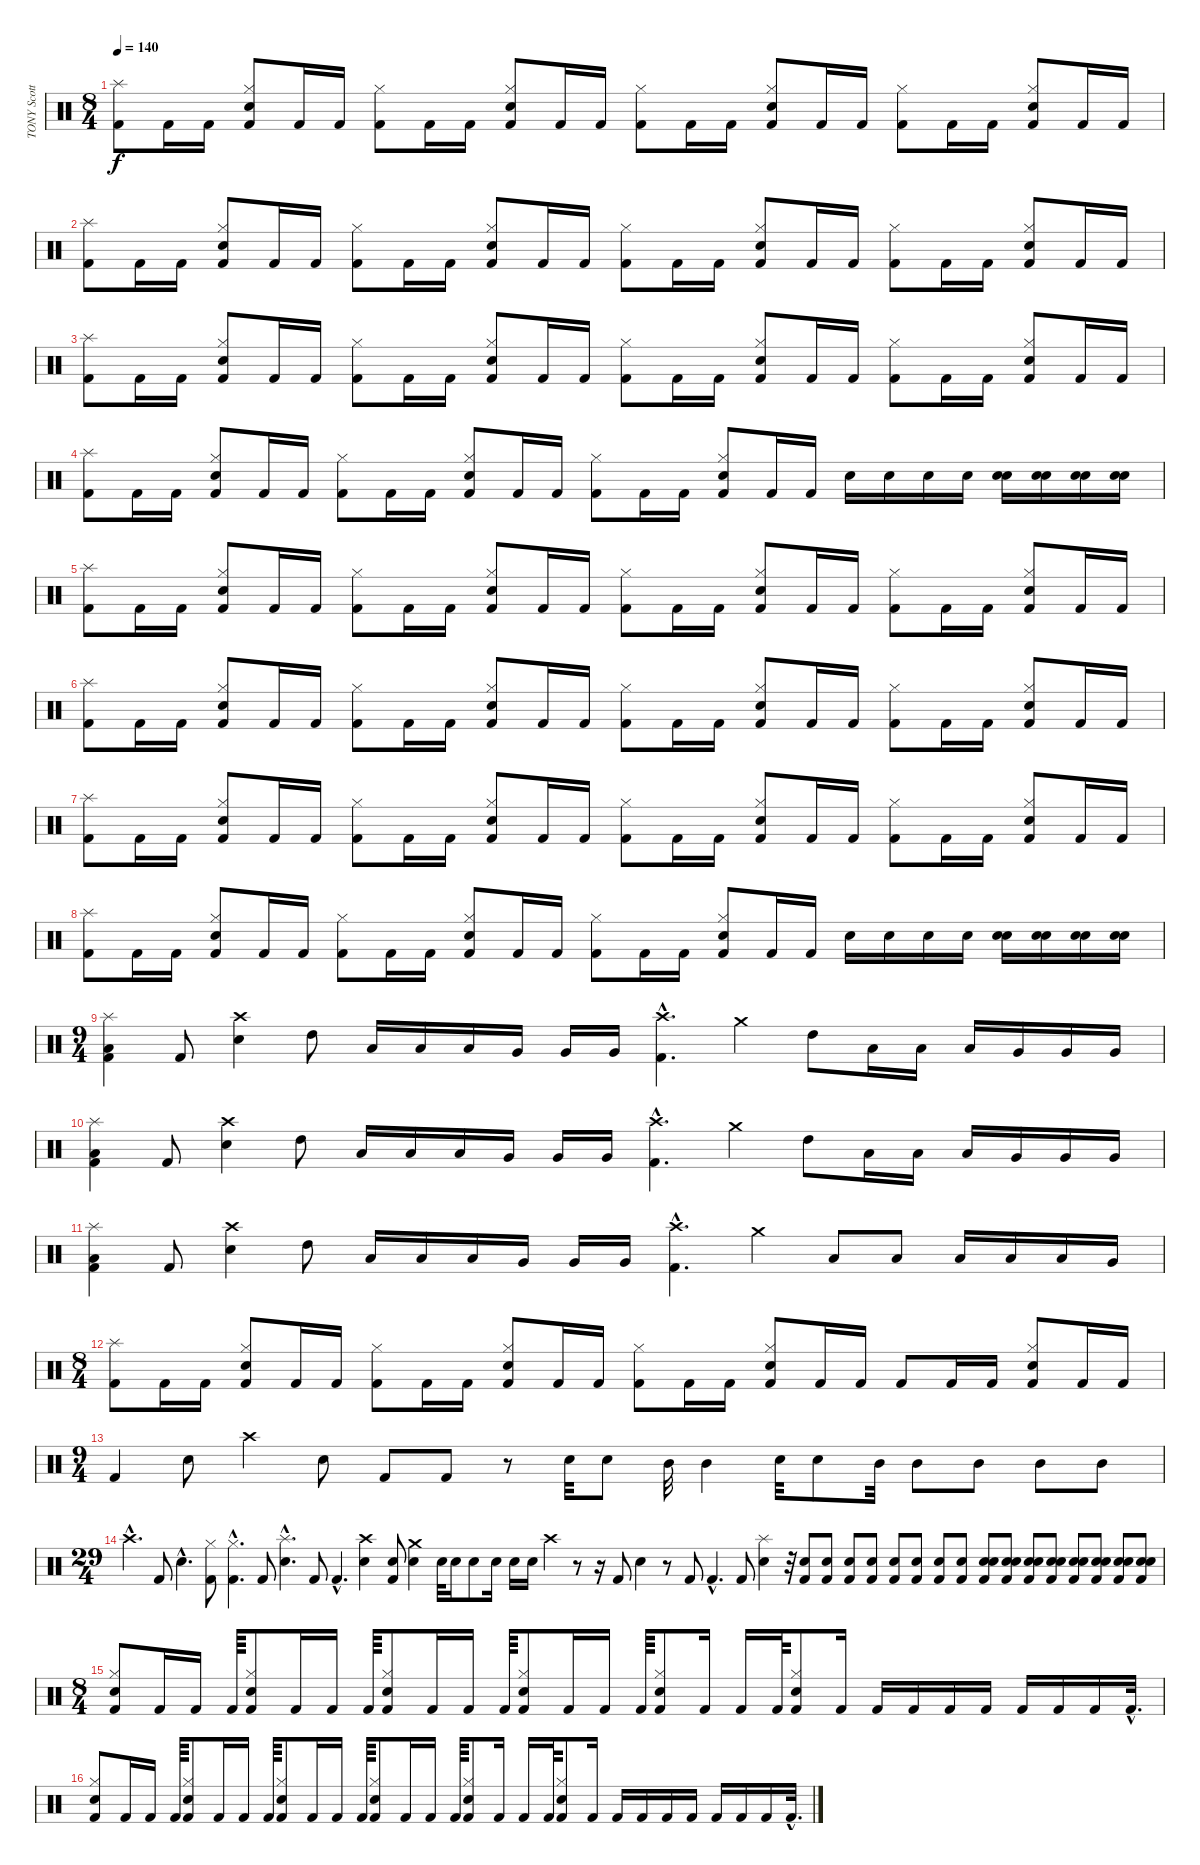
\track ("TONY Scotto" "TONY Scott") {instrument percussion}
\staff {score}
\articulation defaults
\ts (8 4)
\tempo 140
\clef neutral
\ks c
("Splash (hit)" "Kick (hit) 2").8{dy f} "Kick (hit) 2".16 "Kick (hit) 2".16 ("Hi-Hat (closed)" "Electric Snare (hit)" "Kick (hit) 2").8 "Kick (hit) 2".16 "Kick (hit) 2".16 ("Hi-Hat (closed)" "Kick (hit) 2").8 "Kick (hit) 2".16 "Kick (hit) 2".16 ("Hi-Hat (closed)" "Electric Snare (hit)" "Kick (hit) 2").8 "Kick (hit) 2".16 "Kick (hit) 2".16 ("Hi-Hat (closed)" "Kick (hit) 2").8 "Kick (hit) 2".16 "Kick (hit) 2".16 ("Hi-Hat (closed)" "Electric Snare (hit)" "Kick (hit) 2").8 "Kick (hit) 2".16 "Kick (hit) 2".16 ("Hi-Hat (closed)" "Kick (hit) 2").8 "Kick (hit) 2".16 "Kick (hit) 2".16 ("Hi-Hat (closed)" "Electric Snare (hit)" "Kick (hit) 2").8 "Kick (hit) 2".16 "Kick (hit) 2".16 |
("Splash (hit)" "Kick (hit) 2").8 "Kick (hit) 2".16 "Kick (hit) 2".16 ("Hi-Hat (closed)" "Electric Snare (hit)" "Kick (hit) 2").8 "Kick (hit) 2".16 "Kick (hit) 2".16 ("Hi-Hat (closed)" "Kick (hit) 2").8 "Kick (hit) 2".16 "Kick (hit) 2".16 ("Hi-Hat (closed)" "Electric Snare (hit)" "Kick (hit) 2").8 "Kick (hit) 2".16 "Kick (hit) 2".16 ("Hi-Hat (closed)" "Kick (hit) 2").8 "Kick (hit) 2".16 "Kick (hit) 2".16 ("Hi-Hat (closed)" "Electric Snare (hit)" "Kick (hit) 2").8 "Kick (hit) 2".16 "Kick (hit) 2".16 ("Hi-Hat (closed)" "Kick (hit) 2").8 "Kick (hit) 2".16 "Kick (hit) 2".16 ("Hi-Hat (closed)" "Electric Snare (hit)" "Kick (hit) 2").8 "Kick (hit) 2".16 "Kick (hit) 2".16 |
("Splash (hit)" "Kick (hit) 2").8 "Kick (hit) 2".16 "Kick (hit) 2".16 ("Hi-Hat (closed)" "Electric Snare (hit)" "Kick (hit) 2").8 "Kick (hit) 2".16 "Kick (hit) 2".16 ("Hi-Hat (closed)" "Kick (hit) 2").8 "Kick (hit) 2".16 "Kick (hit) 2".16 ("Hi-Hat (closed)" "Electric Snare (hit)" "Kick (hit) 2").8 "Kick (hit) 2".16 "Kick (hit) 2".16 ("Hi-Hat (closed)" "Kick (hit) 2").8 "Kick (hit) 2".16 "Kick (hit) 2".16 ("Hi-Hat (closed)" "Electric Snare (hit)" "Kick (hit) 2").8 "Kick (hit) 2".16 "Kick (hit) 2".16 ("Hi-Hat (closed)" "Kick (hit) 2").8 "Kick (hit) 2".16 "Kick (hit) 2".16 ("Hi-Hat (closed)" "Electric Snare (hit)" "Kick (hit) 2").8 "Kick (hit) 2".16 "Kick (hit) 2".16 |
("Splash (hit)" "Kick (hit) 2").8 "Kick (hit) 2".16 "Kick (hit) 2".16 ("Hi-Hat (closed)" "Electric Snare (hit)" "Kick (hit) 2").8 "Kick (hit) 2".16 "Kick (hit) 2".16 ("Hi-Hat (closed)" "Kick (hit) 2").8 "Kick (hit) 2".16 "Kick (hit) 2".16 ("Hi-Hat (closed)" "Electric Snare (hit)" "Kick (hit) 2").8 "Kick (hit) 2".16 "Kick (hit) 2".16 ("Hi-Hat (closed)" "Kick (hit) 2").8 "Kick (hit) 2".16 "Kick (hit) 2".16 ("Hi-Hat (closed)" "Electric Snare (hit)" "Kick (hit) 2").8 "Kick (hit) 2".16 "Kick (hit) 2".16 "Electric Snare (hit)".16 "Electric Snare (hit)".16 "Electric Snare (hit)".16 "Electric Snare (hit)".16 ("Electric Snare (hit)" "Electric Snare (hit)").16 ("Electric Snare (hit)" "Electric Snare (hit)").16 ("Electric Snare (hit)" "Electric Snare (hit)").16 ("Electric Snare (hit)" "Electric Snare (hit)").16 |
("Splash (hit)" "Kick (hit) 2").8 "Kick (hit) 2".16 "Kick (hit) 2".16 ("Hi-Hat (closed)" "Electric Snare (hit)" "Kick (hit) 2").8 "Kick (hit) 2".16 "Kick (hit) 2".16 ("Hi-Hat (closed)" "Kick (hit) 2").8 "Kick (hit) 2".16 "Kick (hit) 2".16 ("Hi-Hat (closed)" "Electric Snare (hit)" "Kick (hit) 2").8 "Kick (hit) 2".16 "Kick (hit) 2".16 ("Hi-Hat (closed)" "Kick (hit) 2").8 "Kick (hit) 2".16 "Kick (hit) 2".16 ("Hi-Hat (closed)" "Electric Snare (hit)" "Kick (hit) 2").8 "Kick (hit) 2".16 "Kick (hit) 2".16 ("Hi-Hat (closed)" "Kick (hit) 2").8 "Kick (hit) 2".16 "Kick (hit) 2".16 ("Hi-Hat (closed)" "Electric Snare (hit)" "Kick (hit) 2").8 "Kick (hit) 2".16 "Kick (hit) 2".16 |
("Splash (hit)" "Kick (hit) 2").8 "Kick (hit) 2".16 "Kick (hit) 2".16 ("Hi-Hat (closed)" "Electric Snare (hit)" "Kick (hit) 2").8 "Kick (hit) 2".16 "Kick (hit) 2".16 ("Hi-Hat (closed)" "Kick (hit) 2").8 "Kick (hit) 2".16 "Kick (hit) 2".16 ("Hi-Hat (closed)" "Electric Snare (hit)" "Kick (hit) 2").8 "Kick (hit) 2".16 "Kick (hit) 2".16 ("Hi-Hat (closed)" "Kick (hit) 2").8 "Kick (hit) 2".16 "Kick (hit) 2".16 ("Hi-Hat (closed)" "Electric Snare (hit)" "Kick (hit) 2").8 "Kick (hit) 2".16 "Kick (hit) 2".16 ("Hi-Hat (closed)" "Kick (hit) 2").8 "Kick (hit) 2".16 "Kick (hit) 2".16 ("Hi-Hat (closed)" "Electric Snare (hit)" "Kick (hit) 2").8 "Kick (hit) 2".16 "Kick (hit) 2".16 |
("Splash (hit)" "Kick (hit) 2").8 "Kick (hit) 2".16 "Kick (hit) 2".16 ("Hi-Hat (closed)" "Electric Snare (hit)" "Kick (hit) 2").8 "Kick (hit) 2".16 "Kick (hit) 2".16 ("Hi-Hat (closed)" "Kick (hit) 2").8 "Kick (hit) 2".16 "Kick (hit) 2".16 ("Hi-Hat (closed)" "Electric Snare (hit)" "Kick (hit) 2").8 "Kick (hit) 2".16 "Kick (hit) 2".16 ("Hi-Hat (closed)" "Kick (hit) 2").8 "Kick (hit) 2".16 "Kick (hit) 2".16 ("Hi-Hat (closed)" "Electric Snare (hit)" "Kick (hit) 2").8 "Kick (hit) 2".16 "Kick (hit) 2".16 ("Hi-Hat (closed)" "Kick (hit) 2").8 "Kick (hit) 2".16 "Kick (hit) 2".16 ("Hi-Hat (closed)" "Electric Snare (hit)" "Kick (hit) 2").8 "Kick (hit) 2".16 "Kick (hit) 2".16 |
("Splash (hit)" "Kick (hit) 2").8 "Kick (hit) 2".16 "Kick (hit) 2".16 ("Hi-Hat (closed)" "Electric Snare (hit)" "Kick (hit) 2").8 "Kick (hit) 2".16 "Kick (hit) 2".16 ("Hi-Hat (closed)" "Kick (hit) 2").8 "Kick (hit) 2".16 "Kick (hit) 2".16 ("Hi-Hat (closed)" "Electric Snare (hit)" "Kick (hit) 2").8 "Kick (hit) 2".16 "Kick (hit) 2".16 ("Hi-Hat (closed)" "Kick (hit) 2").8 "Kick (hit) 2".16 "Kick (hit) 2".16 ("Hi-Hat (closed)" "Electric Snare (hit)" "Kick (hit) 2").8 "Kick (hit) 2".16 "Kick (hit) 2".16 "Electric Snare (hit)".16 "Electric Snare (hit)".16 "Electric Snare (hit)".16 "Electric Snare (hit)".16 ("Electric Snare (hit)" "Electric Snare (hit)").16 ("Electric Snare (hit)" "Electric Snare (hit)").16 ("Electric Snare (hit)" "Electric Snare (hit)").16 ("Electric Snare (hit)" "Electric Snare (hit)").16 |
\ts (9 4)
("Splash (hit)" "Low Tom (hit)" "Kick (hit) 2").4 "Kick (hit) 2".8 ("Crash high (hit)" "Electric Snare (hit)").4 "High Tom (hit)".8 "Low Floor Tom (hit)".16 "Low Floor Tom (hit)".16 "Low Floor Tom (hit)".16 "Very Low Tom (hit)".16 "Very Low Tom (hit)".16 "Very Low Tom (hit)".16 ("Crash high (hit)"{hac} "Kick (hit) 2"{hac}).4{d} "Crash medium (hit)".4 "High Tom (hit)".8 "Low Floor Tom (hit)".16 "Low Floor Tom (hit)".16 "Low Floor Tom (hit)".16 "Very Low Tom (hit)".16 "Very Low Tom (hit)".16 "Very Low Tom (hit)".16 |
("Splash (hit)" "Low Tom (hit)" "Kick (hit) 2").4 "Kick (hit) 2".8 ("Crash high (hit)" "Electric Snare (hit)").4 "High Tom (hit)".8 "Low Floor Tom (hit)".16 "Low Floor Tom (hit)".16 "Low Floor Tom (hit)".16 "Very Low Tom (hit)".16 "Very Low Tom (hit)".16 "Very Low Tom (hit)".16 ("Crash high (hit)"{hac} "Kick (hit) 2"{hac}).4{d} "Crash medium (hit)".4 "High Tom (hit)".8 "Low Floor Tom (hit)".16 "Low Floor Tom (hit)".16 "Low Floor Tom (hit)".16 "Very Low Tom (hit)".16 "Very Low Tom (hit)".16 "Very Low Tom (hit)".16 |
("Splash (hit)" "Low Tom (hit)" "Kick (hit) 2").4 "Kick (hit) 2".8 ("Crash high (hit)" "Electric Snare (hit)").4 "High Tom (hit)".8 "Low Floor Tom (hit)".16 "Low Floor Tom (hit)".16 "Low Floor Tom (hit)".16 "Very Low Tom (hit)".16 "Very Low Tom (hit)".16 "Very Low Tom (hit)".16 ("Crash high (hit)"{hac} "Kick (hit) 2"{hac}).4{d} "Crash medium (hit)".4 "Low Tom (hit)".8 "Low Tom (hit)".8 "Low Floor Tom (hit)".16 "Low Floor Tom (hit)".16 "Low Floor Tom (hit)".16 "Very Low Tom (hit)".16 |
\ts (8 4)
("Splash (hit)" "Kick (hit) 2").8 "Kick (hit) 2".16 "Kick (hit) 2".16 ("Hi-Hat (closed)" "Electric Snare (hit)" "Kick (hit) 2").8 "Kick (hit) 2".16 "Kick (hit) 2".16 ("Hi-Hat (closed)" "Kick (hit) 2").8 "Kick (hit) 2".16 "Kick (hit) 2".16 ("Hi-Hat (closed)" "Electric Snare (hit)" "Kick (hit) 2").8 "Kick (hit) 2".16 "Kick (hit) 2".16 ("Hi-Hat (closed)" "Kick (hit) 2").8 "Kick (hit) 2".16 "Kick (hit) 2".16 ("Hi-Hat (closed)" "Electric Snare (hit)" "Kick (hit) 2").8 "Kick (hit) 2".16 "Kick (hit) 2".16 "Kick (hit) 2".8 "Kick (hit) 2".16 "Kick (hit) 2".16 ("Hi-Hat (closed)" "Electric Snare (hit)" "Kick (hit) 2").8 "Kick (hit) 2".16 "Kick (hit) 2".16 |
\ts (9 4)
"Kick (hit) 2".4 "Electric Snare (hit)".8 "Crash high (hit)".4 "Electric Snare (hit)".8 "Kick (hit) 2".8 "Kick (hit) 2".8 r.8 "Electric Snare (hit)".32 "Electric Snare (hit)".8 "Mid Tom (hit)".32 "Mid Tom (hit)".4 "Electric Snare (hit)".32 "Electric Snare (hit)".8 "Mid Tom (hit)".32 "Mid Tom (hit)".8 "Mid Tom (hit)".8 "Mid Tom (hit)".8 "Mid Tom (hit)".8 |
\ts (29 4)
"Crash high (hit)"{hac}.4{d} "Kick (hit) 2".8 "Electric Snare (hit)"{hac}.4{d} ("Hi-Hat (closed)" "Kick (hit) 2").8 ("Hi-Hat (closed)"{hac} "Kick (hit) 2"{hac}).4{d} "Kick (hit) 2".8 ("Splash (hit)"{hac} "Electric Snare (hit)"{hac}).4{d} "Kick (hit) 2".8 "Kick (hit) 2"{hac}.4{d} ("Crash high (hit)" "Electric Snare (hit)").4 ("Electric Snare (hit)" "Kick (hit) 2").8 ("Crash medium (hit)" "Electric Snare (hit)").4 "Electric Snare (hit)".32 "Electric Snare (hit)".16 "Electric Snare (hit)".8 "Electric Snare (hit)".16 "Electric Snare (hit)".16 "Electric Snare (hit)".16 "Crash high (hit)".4 r.8 r.16 "Kick (hit) 2".8 "Electric Snare (hit)".4 r.8 "Kick (hit) 2".8 "Kick (hit) 2"{hac}.4{d} "Kick (hit) 2".8 ("Splash (hit)" "Electric Snare (hit)").4 r.32 ("Electric Snare (hit)" "Kick (hit) 2").8 ("Electric Snare (hit)" "Kick (hit) 2").8 ("Electric Snare (hit)" "Kick (hit) 2").8 ("Electric Snare (hit)" "Kick (hit) 2").8 ("Electric Snare (hit)" "Kick (hit) 2").8 ("Electric Snare (hit)" "Kick (hit) 2").8 ("Electric Snare (hit)" "Kick (hit) 2").8 ("Electric Snare (hit)" "Kick (hit) 2").8 ("Electric Snare (hit)" "Electric Snare (hit)" "Kick (hit) 2").8 ("Electric Snare (hit)" "Electric Snare (hit)" "Kick (hit) 2").8 ("Electric Snare (hit)" "Electric Snare (hit)" "Kick (hit) 2").8 ("Electric Snare (hit)" "Electric Snare (hit)" "Kick (hit) 2").8 ("Electric Snare (hit)" "Electric Snare (hit)" "Kick (hit) 2").8 ("Electric Snare (hit)" "Electric Snare (hit)" "Kick (hit) 2").8 ("Electric Snare (hit)" "Electric Snare (hit)" "Kick (hit) 2").8 ("Electric Snare (hit)" "Electric Snare (hit)" "Kick (hit) 2").8 |
\ts (8 4)
("Hi-Hat (closed)" "Electric Snare (hit)" "Kick (hit) 2").8 "Kick (hit) 2".16 "Kick (hit) 2".16 "Kick (hit) 2".64 ("Hi-Hat (closed)" "Electric Snare (hit)" "Kick (hit) 2").8 "Kick (hit) 2".16 "Kick (hit) 2".16 "Kick (hit) 2".64 ("Hi-Hat (closed)" "Electric Snare (hit)" "Kick (hit) 2").8 "Kick (hit) 2".16 "Kick (hit) 2".16 "Kick (hit) 2".64 ("Hi-Hat (closed)" "Electric Snare (hit)" "Kick (hit) 2").8 "Kick (hit) 2".16 "Kick (hit) 2".16 "Kick (hit) 2".64 ("Hi-Hat (closed)" "Electric Snare (hit)" "Kick (hit) 2").8 "Kick (hit) 2".16 "Kick (hit) 2".16 "Kick (hit) 2".64 ("Hi-Hat (closed)" "Electric Snare (hit)" "Kick (hit) 2").8 "Kick (hit) 2".16 "Kick (hit) 2".16 "Kick (hit) 2".16 "Kick (hit) 2".16 "Kick (hit) 2".16 "Kick (hit) 2".16 "Kick (hit) 2".16 "Kick (hit) 2".16 "Kick (hit) 2"{hac}.32{d} |
("Hi-Hat (closed)" "Electric Snare (hit)" "Kick (hit) 2").8 "Kick (hit) 2".16 "Kick (hit) 2".16 "Kick (hit) 2".64 ("Hi-Hat (closed)" "Electric Snare (hit)" "Kick (hit) 2").8 "Kick (hit) 2".16 "Kick (hit) 2".16 "Kick (hit) 2".64 ("Hi-Hat (closed)" "Electric Snare (hit)" "Kick (hit) 2").8 "Kick (hit) 2".16 "Kick (hit) 2".16 "Kick (hit) 2".64 ("Hi-Hat (closed)" "Electric Snare (hit)" "Kick (hit) 2").8 "Kick (hit) 2".16 "Kick (hit) 2".16 "Kick (hit) 2".64 ("Hi-Hat (closed)" "Electric Snare (hit)" "Kick (hit) 2").8 "Kick (hit) 2".16 "Kick (hit) 2".16 "Kick (hit) 2".64 ("Hi-Hat (closed)" "Electric Snare (hit)" "Kick (hit) 2").8 "Kick (hit) 2".16 "Kick (hit) 2".16 "Kick (hit) 2".16 "Kick (hit) 2".16 "Kick (hit) 2".16 "Kick (hit) 2".16 "Kick (hit) 2".16 "Kick (hit) 2".16 "Kick (hit) 2"{hac}.32{d}
